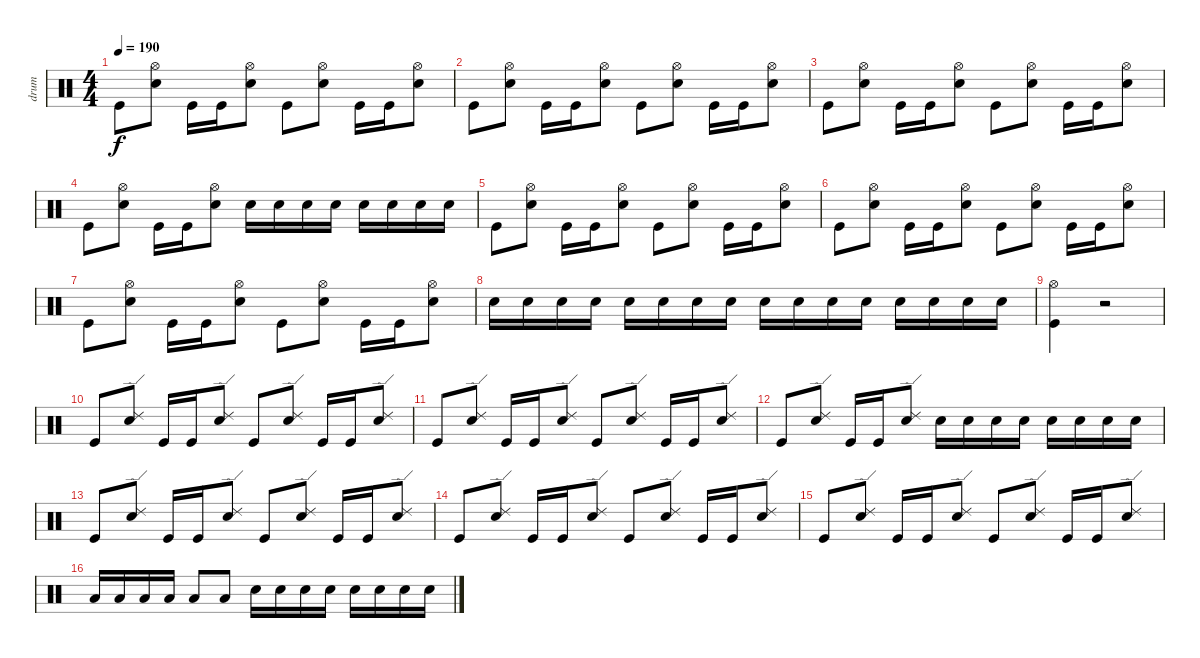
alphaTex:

\track ("drum" "drum") {instrument percussion}
\staff {score}
\articulation defaults
\ts (4 4)
\tempo 190
\clef neutral
\ks c "Kick (hit)".8{dy f}
("Hi-Hat (open)" "Snare (hit) 2").8 "Kick (hit)".16 "Kick (hit)".16 ("Hi-Hat (open)" "Snare (hit) 2").8 "Kick (hit)".8 ("Hi-Hat (open)" "Snare (hit) 2").8 "Kick (hit)".16 "Kick (hit)".16 ("Hi-Hat (open)" "Snare (hit) 2").8 |
"Kick (hit)".8 ("Hi-Hat (open)" "Snare (hit) 2").8 "Kick (hit)".16 "Kick (hit)".16 ("Hi-Hat (open)" "Snare (hit) 2").8 "Kick (hit)".8 ("Hi-Hat (open)" "Snare (hit) 2").8 "Kick (hit)".16 "Kick (hit)".16 ("Hi-Hat (open)" "Snare (hit) 2").8 |
"Kick (hit)".8 ("Hi-Hat (open)" "Snare (hit) 2").8 "Kick (hit)".16 "Kick (hit)".16 ("Hi-Hat (open)" "Snare (hit) 2").8 "Kick (hit)".8 ("Hi-Hat (open)" "Snare (hit) 2").8 "Kick (hit)".16 "Kick (hit)".16 ("Hi-Hat (open)" "Snare (hit) 2").8 |
"Kick (hit)".8 ("Hi-Hat (open)" "Snare (hit) 2").8 "Kick (hit)".16 "Kick (hit)".16 ("Hi-Hat (open)" "Snare (hit) 2").8 "Snare (hit) 2".16 "Snare (hit) 2".16 "Snare (hit) 2".16 "Snare (hit) 2".16 "Snare (hit) 2".16 "Snare (hit) 2".16 "Snare (hit) 2".16 "Snare (hit) 2".16 |
"Kick (hit)".8 ("Hi-Hat (open)" "Snare (hit) 2").8 "Kick (hit)".16 "Kick (hit)".16 ("Hi-Hat (open)" "Snare (hit) 2").8 "Kick (hit)".8 ("Hi-Hat (open)" "Snare (hit) 2").8 "Kick (hit)".16 "Kick (hit)".16 ("Hi-Hat (open)" "Snare (hit) 2").8 |
"Kick (hit)".8 ("Hi-Hat (open)" "Snare (hit) 2").8 "Kick (hit)".16 "Kick (hit)".16 ("Hi-Hat (open)" "Snare (hit) 2").8 "Kick (hit)".8 ("Hi-Hat (open)" "Snare (hit) 2").8 "Kick (hit)".16 "Kick (hit)".16 ("Hi-Hat (open)" "Snare (hit) 2").8 |
"Kick (hit)".8 ("Hi-Hat (open)" "Snare (hit) 2").8 "Kick (hit)".16 "Kick (hit)".16 ("Hi-Hat (open)" "Snare (hit) 2").8 "Kick (hit)".8 ("Hi-Hat (open)" "Snare (hit) 2").8 "Kick (hit)".16 "Kick (hit)".16 ("Hi-Hat (open)" "Snare (hit) 2").8 |
"Snare (hit) 2".16 "Snare (hit) 2".16 "Snare (hit) 2".16 "Snare (hit) 2".16 "Snare (hit) 2".16 "Snare (hit) 2".16 "Snare (hit) 2".16 "Snare (hit) 2".16 "Snare (hit) 2".16 "Snare (hit) 2".16 "Snare (hit) 2".16 "Snare (hit) 2".16 "Snare (hit) 2".16 "Snare (hit) 2".16 "Snare (hit) 2".16 "Snare (hit) 2".16 |
("Hi-Hat (open)" "Kick (hit)").4 r.2 |
"Kick (hit)".8 ("Ride (edge) 2" "Snare (hit) 2").8 "Kick (hit)".16 "Kick (hit)".16 ("Ride (edge) 2" "Snare (hit) 2").8 "Kick (hit)".8 ("Ride (edge) 2" "Snare (hit) 2").8 "Kick (hit)".16 "Kick (hit)".16 ("Ride (edge) 2" "Snare (hit) 2").8 |
"Kick (hit)".8 ("Ride (edge) 2" "Snare (hit) 2").8 "Kick (hit)".16 "Kick (hit)".16 ("Ride (edge) 2" "Snare (hit) 2").8 "Kick (hit)".8 ("Ride (edge) 2" "Snare (hit) 2").8 "Kick (hit)".16 "Kick (hit)".16 ("Ride (edge) 2" "Snare (hit) 2").8 |
"Kick (hit)".8 ("Ride (edge) 2" "Snare (hit) 2").8 "Kick (hit)".16 "Kick (hit)".16 ("Ride (edge) 2" "Snare (hit) 2").8 "Snare (hit) 2".16 "Snare (hit) 2".16 "Snare (hit) 2".16 "Snare (hit) 2".16 "Snare (hit) 2".16 "Snare (hit) 2".16 "Snare (hit) 2".16 "Snare (hit) 2".16 |
"Kick (hit)".8 ("Ride (edge) 2" "Snare (hit) 2").8 "Kick (hit)".16 "Kick (hit)".16 ("Ride (edge) 2" "Snare (hit) 2").8 "Kick (hit)".8 ("Ride (edge) 2" "Snare (hit) 2").8 "Kick (hit)".16 "Kick (hit)".16 ("Ride (edge) 2" "Snare (hit) 2").8 |
"Kick (hit)".8 ("Ride (edge) 2" "Snare (hit) 2").8 "Kick (hit)".16 "Kick (hit)".16 ("Ride (edge) 2" "Snare (hit) 2").8 "Kick (hit)".8 ("Ride (edge) 2" "Snare (hit) 2").8 "Kick (hit)".16 "Kick (hit)".16 ("Ride (edge) 2" "Snare (hit) 2").8 |
"Kick (hit)".8 ("Ride (edge) 2" "Snare (hit) 2").8 "Kick (hit)".16 "Kick (hit)".16 ("Ride (edge) 2" "Snare (hit) 2").8 "Kick (hit)".8 ("Ride (edge) 2" "Snare (hit) 2").8 "Kick (hit)".16 "Kick (hit)".16 ("Ride (edge) 2" "Snare (hit) 2").8 |
"Low Tom (hit)".16 "Low Tom (hit)".16 "Low Tom (hit)".16 "Low Tom (hit)".16 "Low Tom (hit)".8 "Low Tom (hit)".8 "Snare (hit) 2".16 "Snare (hit) 2".16 "Snare (hit) 2".16 "Snare (hit) 2".16 "Snare (hit) 2".16 "Snare (hit) 2".16 "Snare (hit) 2".16 "Snare (hit) 2".16
